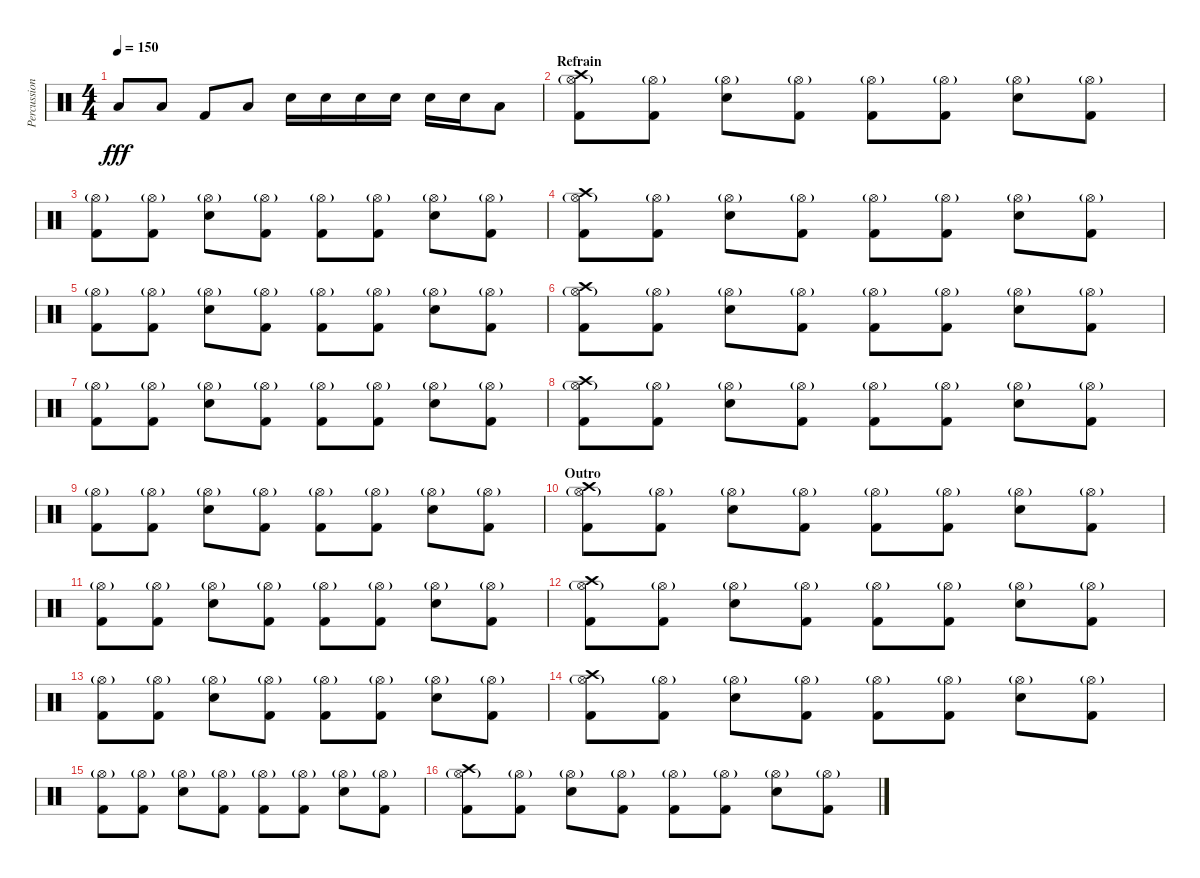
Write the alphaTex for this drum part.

\track ("Percussion" "Percussion") {instrument percussion}
\staff {score}
\articulation defaults
\ts (4 4)
\tempo 150
\clef neutral
\ks c "Low Tom (hit)".8{dy fff} "Low Floor Tom (hit)".8 "Kick (hit) 2".8 "Low Tom (hit)".8 "Electric Snare (hit)".16 "Electric Snare (hit)".16 "Electric Snare (hit)".16 "Electric Snare (hit)".16 "Electric Snare (hit)".16 "Electric Snare (hit)".16 "Low Floor Tom (hit)".8
|
\section ("" "Refrain")
("Crash high (hit)" "Hi-Hat (open)"{g} "Kick (hit) 2").8 ("Hi-Hat (open)"{g} "Kick (hit) 2").8 ("Hi-Hat (open)"{g} "Snare (hit) 2").8 ("Hi-Hat (open)"{g} "Kick (hit) 2").8 ("Hi-Hat (open)"{g} "Kick (hit) 2").8 ("Hi-Hat (open)"{g} "Kick (hit) 2").8 ("Hi-Hat (open)"{g} "Snare (hit) 2").8 ("Hi-Hat (open)"{g} "Kick (hit) 2").8 |
("Hi-Hat (open)"{g} "Kick (hit) 2").8 ("Hi-Hat (open)"{g} "Kick (hit) 2").8 ("Hi-Hat (open)"{g} "Snare (hit) 2").8 ("Hi-Hat (open)"{g} "Kick (hit) 2").8 ("Hi-Hat (open)"{g} "Kick (hit) 2").8 ("Hi-Hat (open)"{g} "Kick (hit) 2").8 ("Hi-Hat (open)"{g} "Snare (hit) 2").8 ("Hi-Hat (open)"{g} "Kick (hit) 2").8 |
("Crash high (hit)" "Hi-Hat (open)"{g} "Kick (hit) 2").8 ("Hi-Hat (open)"{g} "Kick (hit) 2").8 ("Hi-Hat (open)"{g} "Snare (hit) 2").8 ("Hi-Hat (open)"{g} "Kick (hit) 2").8 ("Hi-Hat (open)"{g} "Kick (hit) 2").8 ("Hi-Hat (open)"{g} "Kick (hit) 2").8 ("Hi-Hat (open)"{g} "Snare (hit) 2").8 ("Hi-Hat (open)"{g} "Kick (hit) 2").8 |
("Hi-Hat (open)"{g} "Kick (hit) 2").8 ("Hi-Hat (open)"{g} "Kick (hit) 2").8 ("Hi-Hat (open)"{g} "Snare (hit) 2").8 ("Hi-Hat (open)"{g} "Kick (hit) 2").8 ("Hi-Hat (open)"{g} "Kick (hit) 2").8 ("Hi-Hat (open)"{g} "Kick (hit) 2").8 ("Hi-Hat (open)"{g} "Snare (hit) 2").8 ("Hi-Hat (open)"{g} "Kick (hit) 2").8 |
("Crash high (hit)" "Hi-Hat (open)"{g} "Kick (hit) 2").8 ("Hi-Hat (open)"{g} "Kick (hit) 2").8 ("Hi-Hat (open)"{g} "Snare (hit) 2").8 ("Hi-Hat (open)"{g} "Kick (hit) 2").8 ("Hi-Hat (open)"{g} "Kick (hit) 2").8 ("Hi-Hat (open)"{g} "Kick (hit) 2").8 ("Hi-Hat (open)"{g} "Snare (hit) 2").8 ("Hi-Hat (open)"{g} "Kick (hit) 2").8 |
("Hi-Hat (open)"{g} "Kick (hit) 2").8 ("Hi-Hat (open)"{g} "Kick (hit) 2").8 ("Hi-Hat (open)"{g} "Snare (hit) 2").8 ("Hi-Hat (open)"{g} "Kick (hit) 2").8 ("Hi-Hat (open)"{g} "Kick (hit) 2").8 ("Hi-Hat (open)"{g} "Kick (hit) 2").8 ("Hi-Hat (open)"{g} "Snare (hit) 2").8 ("Hi-Hat (open)"{g} "Kick (hit) 2").8 |
("Crash high (hit)" "Hi-Hat (open)"{g} "Kick (hit) 2").8 ("Hi-Hat (open)"{g} "Kick (hit) 2").8 ("Hi-Hat (open)"{g} "Snare (hit) 2").8 ("Hi-Hat (open)"{g} "Kick (hit) 2").8 ("Hi-Hat (open)"{g} "Kick (hit) 2").8 ("Hi-Hat (open)"{g} "Kick (hit) 2").8 ("Hi-Hat (open)"{g} "Snare (hit) 2").8 ("Hi-Hat (open)"{g} "Kick (hit) 2").8 |
("Hi-Hat (open)"{g} "Kick (hit) 2").8 ("Hi-Hat (open)"{g} "Kick (hit) 2").8 ("Hi-Hat (open)"{g} "Snare (hit) 2").8 ("Hi-Hat (open)"{g} "Kick (hit) 2").8 ("Hi-Hat (open)"{g} "Kick (hit) 2").8 ("Hi-Hat (open)"{g} "Kick (hit) 2").8 ("Hi-Hat (open)"{g} "Snare (hit) 2").8 ("Hi-Hat (open)"{g} "Kick (hit) 2").8 |
\section ("" "Outro")
("Crash high (hit)" "Hi-Hat (open)"{g} "Kick (hit) 2").8 ("Hi-Hat (open)"{g} "Kick (hit) 2").8 ("Hi-Hat (open)"{g} "Snare (hit) 2").8 ("Hi-Hat (open)"{g} "Kick (hit) 2").8 ("Hi-Hat (open)"{g} "Kick (hit) 2").8 ("Hi-Hat (open)"{g} "Kick (hit) 2").8 ("Hi-Hat (open)"{g} "Snare (hit) 2").8 ("Hi-Hat (open)"{g} "Kick (hit) 2").8 |
("Hi-Hat (open)"{g} "Kick (hit) 2").8 ("Hi-Hat (open)"{g} "Kick (hit) 2").8 ("Hi-Hat (open)"{g} "Snare (hit) 2").8 ("Hi-Hat (open)"{g} "Kick (hit) 2").8 ("Hi-Hat (open)"{g} "Kick (hit) 2").8 ("Hi-Hat (open)"{g} "Kick (hit) 2").8 ("Hi-Hat (open)"{g} "Snare (hit) 2").8 ("Hi-Hat (open)"{g} "Kick (hit) 2").8 |
("Crash high (hit)" "Hi-Hat (open)"{g} "Kick (hit) 2").8 ("Hi-Hat (open)"{g} "Kick (hit) 2").8 ("Hi-Hat (open)"{g} "Snare (hit) 2").8 ("Hi-Hat (open)"{g} "Kick (hit) 2").8 ("Hi-Hat (open)"{g} "Kick (hit) 2").8 ("Hi-Hat (open)"{g} "Kick (hit) 2").8 ("Hi-Hat (open)"{g} "Snare (hit) 2").8 ("Hi-Hat (open)"{g} "Kick (hit) 2").8 |
("Hi-Hat (open)"{g} "Kick (hit) 2").8 ("Hi-Hat (open)"{g} "Kick (hit) 2").8 ("Hi-Hat (open)"{g} "Snare (hit) 2").8 ("Hi-Hat (open)"{g} "Kick (hit) 2").8 ("Hi-Hat (open)"{g} "Kick (hit) 2").8 ("Hi-Hat (open)"{g} "Kick (hit) 2").8 ("Hi-Hat (open)"{g} "Snare (hit) 2").8 ("Hi-Hat (open)"{g} "Kick (hit) 2").8 |
("Crash high (hit)" "Hi-Hat (open)"{g} "Kick (hit) 2").8 ("Hi-Hat (open)"{g} "Kick (hit) 2").8 ("Hi-Hat (open)"{g} "Snare (hit) 2").8 ("Hi-Hat (open)"{g} "Kick (hit) 2").8 ("Hi-Hat (open)"{g} "Kick (hit) 2").8 ("Hi-Hat (open)"{g} "Kick (hit) 2").8 ("Hi-Hat (open)"{g} "Snare (hit) 2").8 ("Hi-Hat (open)"{g} "Kick (hit) 2").8 |
("Hi-Hat (open)"{g} "Kick (hit) 2").8 ("Hi-Hat (open)"{g} "Kick (hit) 2").8 ("Hi-Hat (open)"{g} "Snare (hit) 2").8 ("Hi-Hat (open)"{g} "Kick (hit) 2").8 ("Hi-Hat (open)"{g} "Kick (hit) 2").8 ("Hi-Hat (open)"{g} "Kick (hit) 2").8 ("Hi-Hat (open)"{g} "Snare (hit) 2").8 ("Hi-Hat (open)"{g} "Kick (hit) 2").8 |
("Crash high (hit)" "Hi-Hat (open)"{g} "Kick (hit) 2").8 ("Hi-Hat (open)"{g} "Kick (hit) 2").8 ("Hi-Hat (open)"{g} "Snare (hit) 2").8 ("Hi-Hat (open)"{g} "Kick (hit) 2").8 ("Hi-Hat (open)"{g} "Kick (hit) 2").8 ("Hi-Hat (open)"{g} "Kick (hit) 2").8 ("Hi-Hat (open)"{g} "Snare (hit) 2").8 ("Hi-Hat (open)"{g} "Kick (hit) 2").8
